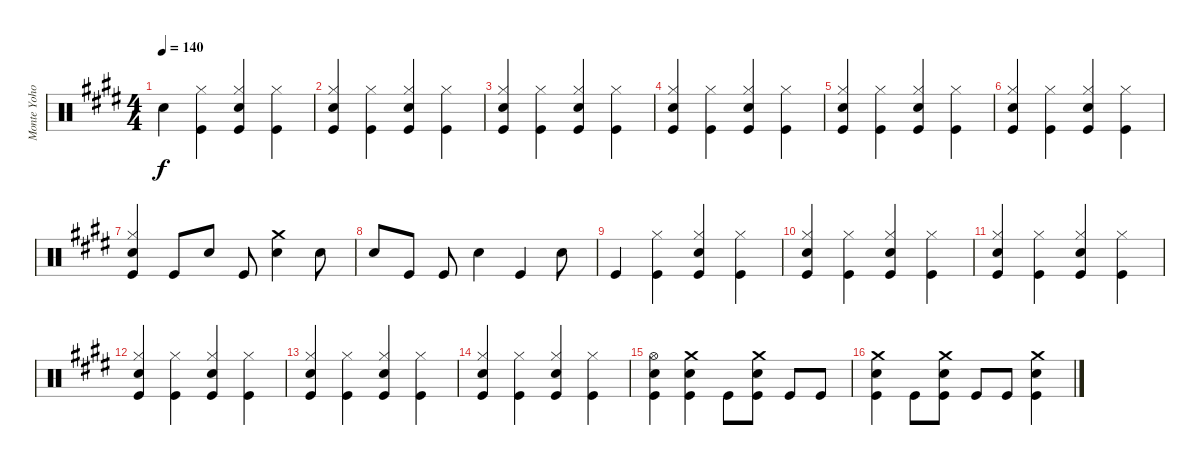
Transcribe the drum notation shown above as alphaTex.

\track ("Monte Yoho Drums" "Monte Yoho") {instrument percussion}
\staff {score}
\articulation defaults
\ts (4 4)
\tempo 140
\clef neutral
\ks e "Snare (hit) 2".4{dy f}
("Hi-Hat (closed)" "Kick (hit)").4 ("Hi-Hat (closed)" "Snare (hit) 2" "Kick (hit)").4 ("Hi-Hat (closed)" "Kick (hit)").4 |
("Hi-Hat (closed)" "Snare (hit) 2" "Kick (hit)").4 ("Hi-Hat (closed)" "Kick (hit)").4 ("Hi-Hat (closed)" "Snare (hit) 2" "Kick (hit)").4 ("Hi-Hat (closed)" "Kick (hit)").4 |
("Hi-Hat (closed)" "Snare (hit) 2" "Kick (hit)").4 ("Hi-Hat (closed)" "Kick (hit)").4 ("Hi-Hat (closed)" "Snare (hit) 2" "Kick (hit)").4 ("Hi-Hat (closed)" "Kick (hit)").4 |
("Hi-Hat (closed)" "Snare (hit) 2" "Kick (hit)").4 ("Hi-Hat (closed)" "Kick (hit)").4 ("Hi-Hat (closed)" "Snare (hit) 2" "Kick (hit)").4 ("Hi-Hat (closed)" "Kick (hit)").4 |
("Hi-Hat (closed)" "Snare (hit) 2" "Kick (hit)").4 ("Hi-Hat (closed)" "Kick (hit)").4 ("Hi-Hat (closed)" "Snare (hit) 2" "Kick (hit)").4 ("Hi-Hat (closed)" "Kick (hit)").4 |
("Hi-Hat (closed)" "Snare (hit) 2" "Kick (hit)").4 ("Hi-Hat (closed)" "Kick (hit)").4 ("Hi-Hat (closed)" "Snare (hit) 2" "Kick (hit)").4 ("Hi-Hat (closed)" "Kick (hit)").4 |
("Hi-Hat (closed)" "Snare (hit) 2" "Kick (hit)").4 "Kick (hit)".8 "Snare (hit) 2".8 "Kick (hit)".8 ("Crash medium (hit)" "Snare (hit) 2").4 "Snare (hit) 2".8 |
"Snare (hit) 2".8 "Kick (hit)".8 "Kick (hit)".8 "Snare (hit) 2".4 "Kick (hit)".4 "Snare (hit) 2".8 |
"Kick (hit)".4 ("Hi-Hat (closed)" "Kick (hit)").4 ("Hi-Hat (closed)" "Snare (hit) 2" "Kick (hit)").4 ("Hi-Hat (closed)" "Kick (hit)").4 |
("Hi-Hat (closed)" "Snare (hit) 2" "Kick (hit)").4 ("Hi-Hat (closed)" "Kick (hit)").4 ("Hi-Hat (closed)" "Snare (hit) 2" "Kick (hit)").4 ("Hi-Hat (closed)" "Kick (hit)").4 |
("Hi-Hat (closed)" "Snare (hit) 2" "Kick (hit)").4 ("Hi-Hat (closed)" "Kick (hit)").4 ("Hi-Hat (closed)" "Snare (hit) 2" "Kick (hit)").4 ("Hi-Hat (closed)" "Kick (hit)").4 |
("Hi-Hat (closed)" "Snare (hit) 2" "Kick (hit)").4 ("Hi-Hat (closed)" "Kick (hit)").4 ("Hi-Hat (closed)" "Snare (hit) 2" "Kick (hit)").4 ("Hi-Hat (closed)" "Kick (hit)").4 |
("Hi-Hat (closed)" "Snare (hit) 2" "Kick (hit)").4 ("Hi-Hat (closed)" "Kick (hit)").4 ("Hi-Hat (closed)" "Snare (hit) 2" "Kick (hit)").4 ("Hi-Hat (closed)" "Kick (hit)").4 |
("Hi-Hat (closed)" "Snare (hit) 2" "Kick (hit)").4 ("Hi-Hat (closed)" "Kick (hit)").4 ("Hi-Hat (closed)" "Snare (hit) 2" "Kick (hit)").4 ("Hi-Hat (closed)" "Kick (hit)").4 |
("Hi-Hat (open)" "Snare (hit) 2" "Kick (hit)").4 ("Crash medium (hit)" "Snare (hit) 2" "Kick (hit)").4 "Kick (hit)".8 ("Crash medium (hit)" "Snare (hit) 2" "Kick (hit)").8 "Kick (hit)".8 "Kick (hit)".8 |
("Crash medium (hit)" "Snare (hit) 2" "Kick (hit)").4 "Kick (hit)".8 ("Crash medium (hit)" "Snare (hit) 2" "Kick (hit)").8 "Kick (hit)".8 "Kick (hit)".8 ("Crash medium (hit)" "Snare (hit) 2" "Kick (hit)").4
